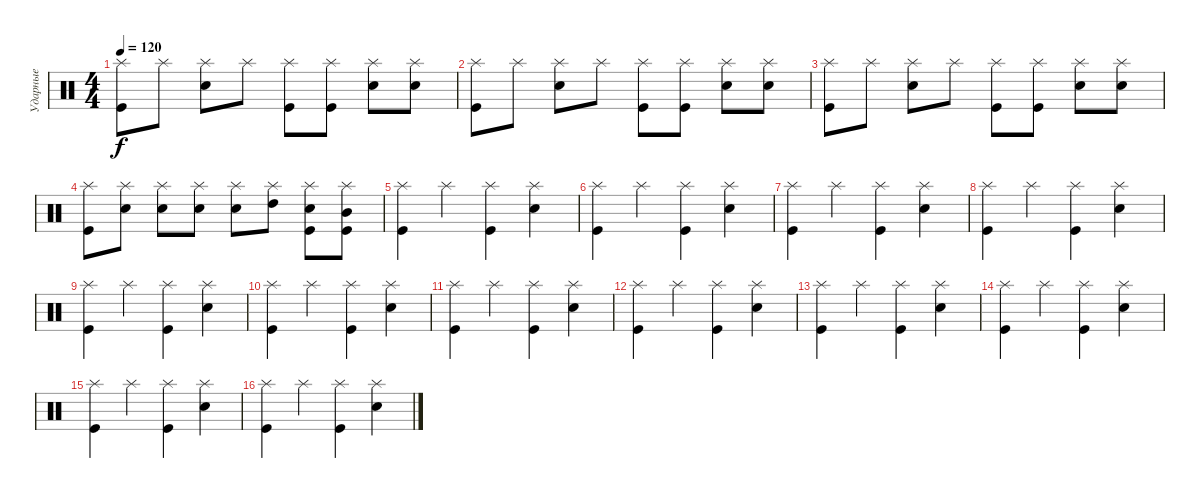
\track ("Ударные" "Ударные") {instrument percussion}
\staff {score}
\articulation defaults
\ts (4 4)
\tempo 120
\clef neutral
\ks c
("Splash (hit)" "Kick (hit)").8{dy f} "Splash (hit)".8 ("Splash (hit)" "Snare (hit) 2").8 "Splash (hit)".8 ("Splash (hit)" "Kick (hit)").8 ("Splash (hit)" "Kick (hit)").8 ("Splash (hit)" "Snare (hit) 2").8 ("Splash (hit)" "Snare (hit) 2").8 |
("Splash (hit)" "Kick (hit)").8 "Splash (hit)".8 ("Splash (hit)" "Snare (hit) 2").8 "Splash (hit)".8 ("Splash (hit)" "Kick (hit)").8 ("Splash (hit)" "Kick (hit)").8 ("Splash (hit)" "Snare (hit) 2").8 ("Splash (hit)" "Snare (hit) 2").8 |
("Splash (hit)" "Kick (hit)").8 "Splash (hit)".8 ("Splash (hit)" "Snare (hit) 2").8 "Splash (hit)".8 ("Splash (hit)" "Kick (hit)").8 ("Splash (hit)" "Kick (hit)").8 ("Splash (hit)" "Snare (hit) 2").8 ("Splash (hit)" "Snare (hit) 2").8 |
("Splash (hit)" "Kick (hit)").8 ("Splash (hit)" "Electric Snare (hit)").8 ("Splash (hit)" "Snare (hit) 2").8 ("Splash (hit)" "Snare (hit) 2").8 ("Splash (hit)" "Electric Snare (hit)").8 ("Splash (hit)" "High Tom (hit)").8 ("Splash (hit)" "Snare (hit) 2" "Kick (hit)").8 ("Splash (hit)" "Mid Tom (hit)" "Kick (hit)").8 |
("Splash (hit)" "Kick (hit)").4 "Splash (hit)".4 ("Splash (hit)" "Kick (hit)").4 ("Splash (hit)" "Snare (hit) 2").4 |
("Splash (hit)" "Kick (hit)").4 "Splash (hit)".4 ("Splash (hit)" "Kick (hit)").4 ("Splash (hit)" "Snare (hit) 2").4 |
("Splash (hit)" "Kick (hit)").4 "Splash (hit)".4 ("Splash (hit)" "Kick (hit)").4 ("Splash (hit)" "Snare (hit) 2").4 |
("Splash (hit)" "Kick (hit)").4 "Splash (hit)".4 ("Splash (hit)" "Kick (hit)").4 ("Splash (hit)" "Snare (hit) 2").4 |
("Splash (hit)" "Kick (hit)").4 "Splash (hit)".4 ("Splash (hit)" "Kick (hit)").4 ("Splash (hit)" "Snare (hit) 2").4 |
("Splash (hit)" "Kick (hit)").4 "Splash (hit)".4 ("Splash (hit)" "Kick (hit)").4 ("Splash (hit)" "Snare (hit) 2").4 |
("Splash (hit)" "Kick (hit)").4 "Splash (hit)".4 ("Splash (hit)" "Kick (hit)").4 ("Splash (hit)" "Snare (hit) 2").4 |
("Splash (hit)" "Kick (hit)").4 "Splash (hit)".4 ("Splash (hit)" "Kick (hit)").4 ("Splash (hit)" "Snare (hit) 2").4 |
("Splash (hit)" "Kick (hit)").4 "Splash (hit)".4 ("Splash (hit)" "Kick (hit)").4 ("Splash (hit)" "Snare (hit) 2").4 |
("Splash (hit)" "Kick (hit)").4 "Splash (hit)".4 ("Splash (hit)" "Kick (hit)").4 ("Splash (hit)" "Snare (hit) 2").4 |
("Splash (hit)" "Kick (hit)").4 "Splash (hit)".4 ("Splash (hit)" "Kick (hit)").4 ("Splash (hit)" "Snare (hit) 2").4 |
("Splash (hit)" "Kick (hit)").4 "Splash (hit)".4 ("Splash (hit)" "Kick (hit)").4 ("Splash (hit)" "Snare (hit) 2").4
